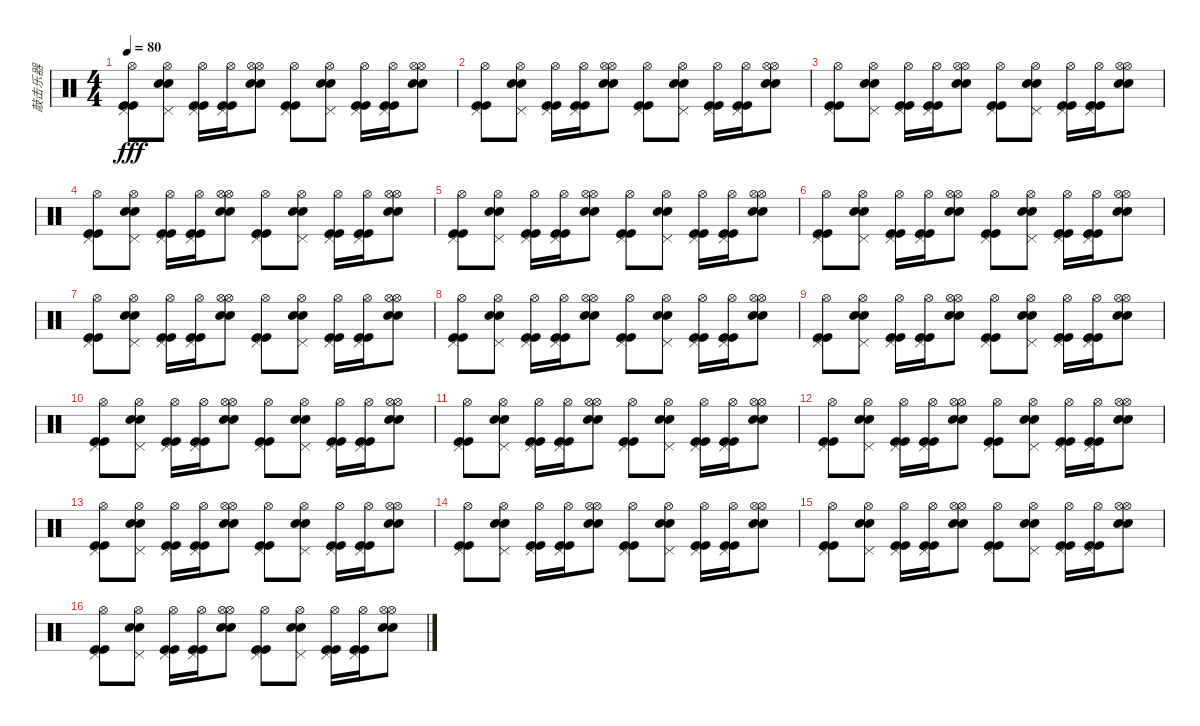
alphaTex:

\track ("敲击乐器" "敲击乐器") {instrument percussion}
\staff {score}
\articulation defaults
\ts (4 4)
\tempo 80
\clef neutral
\ks c
("Kick (hit)" "Kick (hit)" "Pedal Hi-Hat (hit)" "Hi-Hat (open)").8{dy fff} ("Electric Snare (hit)" "Electric Snare (hit)" "Pedal Hi-Hat (hit)" "Hi-Hat (open)").8 ("Kick (hit)" "Kick (hit)" "Pedal Hi-Hat (hit)" "Hi-Hat (open)").16 ("Kick (hit)" "Kick (hit)" "Pedal Hi-Hat (hit)" "Hi-Hat (open)").16 ("Electric Snare (hit)" "Electric Snare (hit)" "Hi-Hat (open)" "Hi-Hat (open)").8 ("Kick (hit)" "Kick (hit)" "Pedal Hi-Hat (hit)" "Hi-Hat (open)").8 ("Electric Snare (hit)" "Electric Snare (hit)" "Pedal Hi-Hat (hit)" "Hi-Hat (open)").8 ("Kick (hit)" "Kick (hit)" "Pedal Hi-Hat (hit)" "Hi-Hat (open)").16 ("Kick (hit)" "Kick (hit)" "Pedal Hi-Hat (hit)" "Hi-Hat (open)").16 ("Electric Snare (hit)" "Electric Snare (hit)" "Hi-Hat (open)" "Hi-Hat (open)").8 |
("Kick (hit)" "Kick (hit)" "Pedal Hi-Hat (hit)" "Hi-Hat (open)").8 ("Electric Snare (hit)" "Electric Snare (hit)" "Pedal Hi-Hat (hit)" "Hi-Hat (open)").8 ("Kick (hit)" "Kick (hit)" "Pedal Hi-Hat (hit)" "Hi-Hat (open)").16 ("Kick (hit)" "Kick (hit)" "Pedal Hi-Hat (hit)" "Hi-Hat (open)").16 ("Electric Snare (hit)" "Electric Snare (hit)" "Hi-Hat (open)" "Hi-Hat (open)").8 ("Kick (hit)" "Kick (hit)" "Pedal Hi-Hat (hit)" "Hi-Hat (open)").8 ("Electric Snare (hit)" "Electric Snare (hit)" "Pedal Hi-Hat (hit)" "Hi-Hat (open)").8 ("Kick (hit)" "Kick (hit)" "Pedal Hi-Hat (hit)" "Hi-Hat (open)").16 ("Kick (hit)" "Kick (hit)" "Pedal Hi-Hat (hit)" "Hi-Hat (open)").16 ("Electric Snare (hit)" "Electric Snare (hit)" "Hi-Hat (open)" "Hi-Hat (open)").8 |
("Kick (hit)" "Kick (hit)" "Pedal Hi-Hat (hit)" "Hi-Hat (open)").8 ("Electric Snare (hit)" "Electric Snare (hit)" "Pedal Hi-Hat (hit)" "Hi-Hat (open)").8 ("Kick (hit)" "Kick (hit)" "Pedal Hi-Hat (hit)" "Hi-Hat (open)").16 ("Kick (hit)" "Kick (hit)" "Pedal Hi-Hat (hit)" "Hi-Hat (open)").16 ("Electric Snare (hit)" "Electric Snare (hit)" "Hi-Hat (open)" "Hi-Hat (open)").8 ("Kick (hit)" "Kick (hit)" "Pedal Hi-Hat (hit)" "Hi-Hat (open)").8 ("Electric Snare (hit)" "Electric Snare (hit)" "Pedal Hi-Hat (hit)" "Hi-Hat (open)").8 ("Kick (hit)" "Kick (hit)" "Pedal Hi-Hat (hit)" "Hi-Hat (open)").16 ("Kick (hit)" "Kick (hit)" "Pedal Hi-Hat (hit)" "Hi-Hat (open)").16 ("Electric Snare (hit)" "Electric Snare (hit)" "Hi-Hat (open)" "Hi-Hat (open)").8 |
("Kick (hit)" "Kick (hit)" "Pedal Hi-Hat (hit)" "Hi-Hat (open)").8 ("Electric Snare (hit)" "Electric Snare (hit)" "Pedal Hi-Hat (hit)" "Hi-Hat (open)").8 ("Kick (hit)" "Kick (hit)" "Pedal Hi-Hat (hit)" "Hi-Hat (open)").16 ("Kick (hit)" "Kick (hit)" "Pedal Hi-Hat (hit)" "Hi-Hat (open)").16 ("Electric Snare (hit)" "Electric Snare (hit)" "Hi-Hat (open)" "Hi-Hat (open)").8 ("Kick (hit)" "Kick (hit)" "Pedal Hi-Hat (hit)" "Hi-Hat (open)").8 ("Electric Snare (hit)" "Electric Snare (hit)" "Pedal Hi-Hat (hit)" "Hi-Hat (open)").8 ("Kick (hit)" "Kick (hit)" "Pedal Hi-Hat (hit)" "Hi-Hat (open)").16 ("Kick (hit)" "Kick (hit)" "Pedal Hi-Hat (hit)" "Hi-Hat (open)").16 ("Electric Snare (hit)" "Electric Snare (hit)" "Hi-Hat (open)" "Hi-Hat (open)").8 |
("Kick (hit)" "Kick (hit)" "Pedal Hi-Hat (hit)" "Hi-Hat (open)").8 ("Electric Snare (hit)" "Electric Snare (hit)" "Pedal Hi-Hat (hit)" "Hi-Hat (open)").8 ("Kick (hit)" "Kick (hit)" "Pedal Hi-Hat (hit)" "Hi-Hat (open)").16 ("Kick (hit)" "Kick (hit)" "Pedal Hi-Hat (hit)" "Hi-Hat (open)").16 ("Electric Snare (hit)" "Electric Snare (hit)" "Hi-Hat (open)" "Hi-Hat (open)").8 ("Kick (hit)" "Kick (hit)" "Pedal Hi-Hat (hit)" "Hi-Hat (open)").8 ("Electric Snare (hit)" "Electric Snare (hit)" "Pedal Hi-Hat (hit)" "Hi-Hat (open)").8 ("Kick (hit)" "Kick (hit)" "Pedal Hi-Hat (hit)" "Hi-Hat (open)").16 ("Kick (hit)" "Kick (hit)" "Pedal Hi-Hat (hit)" "Hi-Hat (open)").16 ("Electric Snare (hit)" "Electric Snare (hit)" "Hi-Hat (open)" "Hi-Hat (open)").8 |
("Kick (hit)" "Kick (hit)" "Pedal Hi-Hat (hit)" "Hi-Hat (open)").8 ("Electric Snare (hit)" "Electric Snare (hit)" "Pedal Hi-Hat (hit)" "Hi-Hat (open)").8 ("Kick (hit)" "Kick (hit)" "Pedal Hi-Hat (hit)" "Hi-Hat (open)").16 ("Kick (hit)" "Kick (hit)" "Pedal Hi-Hat (hit)" "Hi-Hat (open)").16 ("Electric Snare (hit)" "Electric Snare (hit)" "Hi-Hat (open)" "Hi-Hat (open)").8 ("Kick (hit)" "Kick (hit)" "Pedal Hi-Hat (hit)" "Hi-Hat (open)").8 ("Electric Snare (hit)" "Electric Snare (hit)" "Pedal Hi-Hat (hit)" "Hi-Hat (open)").8 ("Kick (hit)" "Kick (hit)" "Pedal Hi-Hat (hit)" "Hi-Hat (open)").16 ("Kick (hit)" "Kick (hit)" "Pedal Hi-Hat (hit)" "Hi-Hat (open)").16 ("Electric Snare (hit)" "Electric Snare (hit)" "Hi-Hat (open)" "Hi-Hat (open)").8 |
("Kick (hit)" "Kick (hit)" "Pedal Hi-Hat (hit)" "Hi-Hat (open)").8 ("Electric Snare (hit)" "Electric Snare (hit)" "Pedal Hi-Hat (hit)" "Hi-Hat (open)").8 ("Kick (hit)" "Kick (hit)" "Pedal Hi-Hat (hit)" "Hi-Hat (open)").16 ("Kick (hit)" "Kick (hit)" "Pedal Hi-Hat (hit)" "Hi-Hat (open)").16 ("Electric Snare (hit)" "Electric Snare (hit)" "Hi-Hat (open)" "Hi-Hat (open)").8 ("Kick (hit)" "Kick (hit)" "Pedal Hi-Hat (hit)" "Hi-Hat (open)").8 ("Electric Snare (hit)" "Electric Snare (hit)" "Pedal Hi-Hat (hit)" "Hi-Hat (open)").8 ("Kick (hit)" "Kick (hit)" "Pedal Hi-Hat (hit)" "Hi-Hat (open)").16 ("Kick (hit)" "Kick (hit)" "Pedal Hi-Hat (hit)" "Hi-Hat (open)").16 ("Electric Snare (hit)" "Electric Snare (hit)" "Hi-Hat (open)" "Hi-Hat (open)").8 |
("Kick (hit)" "Kick (hit)" "Pedal Hi-Hat (hit)" "Hi-Hat (open)").8 ("Electric Snare (hit)" "Electric Snare (hit)" "Pedal Hi-Hat (hit)" "Hi-Hat (open)").8 ("Kick (hit)" "Kick (hit)" "Pedal Hi-Hat (hit)" "Hi-Hat (open)").16 ("Kick (hit)" "Kick (hit)" "Pedal Hi-Hat (hit)" "Hi-Hat (open)").16 ("Electric Snare (hit)" "Electric Snare (hit)" "Hi-Hat (open)" "Hi-Hat (open)").8 ("Kick (hit)" "Kick (hit)" "Pedal Hi-Hat (hit)" "Hi-Hat (open)").8 ("Electric Snare (hit)" "Electric Snare (hit)" "Pedal Hi-Hat (hit)" "Hi-Hat (open)").8 ("Kick (hit)" "Kick (hit)" "Pedal Hi-Hat (hit)" "Hi-Hat (open)").16 ("Kick (hit)" "Kick (hit)" "Pedal Hi-Hat (hit)" "Hi-Hat (open)").16 ("Electric Snare (hit)" "Electric Snare (hit)" "Hi-Hat (open)" "Hi-Hat (open)").8 |
("Kick (hit)" "Kick (hit)" "Pedal Hi-Hat (hit)" "Hi-Hat (open)").8 ("Electric Snare (hit)" "Electric Snare (hit)" "Pedal Hi-Hat (hit)" "Hi-Hat (open)").8 ("Kick (hit)" "Kick (hit)" "Pedal Hi-Hat (hit)" "Hi-Hat (open)").16 ("Kick (hit)" "Kick (hit)" "Pedal Hi-Hat (hit)" "Hi-Hat (open)").16 ("Electric Snare (hit)" "Electric Snare (hit)" "Hi-Hat (open)" "Hi-Hat (open)").8 ("Kick (hit)" "Kick (hit)" "Pedal Hi-Hat (hit)" "Hi-Hat (open)").8 ("Electric Snare (hit)" "Electric Snare (hit)" "Pedal Hi-Hat (hit)" "Hi-Hat (open)").8 ("Kick (hit)" "Kick (hit)" "Pedal Hi-Hat (hit)" "Hi-Hat (open)").16 ("Kick (hit)" "Kick (hit)" "Pedal Hi-Hat (hit)" "Hi-Hat (open)").16 ("Electric Snare (hit)" "Electric Snare (hit)" "Hi-Hat (open)" "Hi-Hat (open)").8 |
("Kick (hit)" "Kick (hit)" "Pedal Hi-Hat (hit)" "Hi-Hat (open)").8 ("Electric Snare (hit)" "Electric Snare (hit)" "Pedal Hi-Hat (hit)" "Hi-Hat (open)").8 ("Kick (hit)" "Kick (hit)" "Pedal Hi-Hat (hit)" "Hi-Hat (open)").16 ("Kick (hit)" "Kick (hit)" "Pedal Hi-Hat (hit)" "Hi-Hat (open)").16 ("Electric Snare (hit)" "Electric Snare (hit)" "Hi-Hat (open)" "Hi-Hat (open)").8 ("Kick (hit)" "Kick (hit)" "Pedal Hi-Hat (hit)" "Hi-Hat (open)").8 ("Electric Snare (hit)" "Electric Snare (hit)" "Pedal Hi-Hat (hit)" "Hi-Hat (open)").8 ("Kick (hit)" "Kick (hit)" "Pedal Hi-Hat (hit)" "Hi-Hat (open)").16 ("Kick (hit)" "Kick (hit)" "Pedal Hi-Hat (hit)" "Hi-Hat (open)").16 ("Electric Snare (hit)" "Electric Snare (hit)" "Hi-Hat (open)" "Hi-Hat (open)").8 |
("Kick (hit)" "Kick (hit)" "Pedal Hi-Hat (hit)" "Hi-Hat (open)").8 ("Electric Snare (hit)" "Electric Snare (hit)" "Pedal Hi-Hat (hit)" "Hi-Hat (open)").8 ("Kick (hit)" "Kick (hit)" "Pedal Hi-Hat (hit)" "Hi-Hat (open)").16 ("Kick (hit)" "Kick (hit)" "Pedal Hi-Hat (hit)" "Hi-Hat (open)").16 ("Electric Snare (hit)" "Electric Snare (hit)" "Hi-Hat (open)" "Hi-Hat (open)").8 ("Kick (hit)" "Kick (hit)" "Pedal Hi-Hat (hit)" "Hi-Hat (open)").8 ("Electric Snare (hit)" "Electric Snare (hit)" "Pedal Hi-Hat (hit)" "Hi-Hat (open)").8 ("Kick (hit)" "Kick (hit)" "Pedal Hi-Hat (hit)" "Hi-Hat (open)").16 ("Kick (hit)" "Kick (hit)" "Pedal Hi-Hat (hit)" "Hi-Hat (open)").16 ("Electric Snare (hit)" "Electric Snare (hit)" "Hi-Hat (open)" "Hi-Hat (open)").8 |
("Kick (hit)" "Kick (hit)" "Pedal Hi-Hat (hit)" "Hi-Hat (open)").8 ("Electric Snare (hit)" "Electric Snare (hit)" "Pedal Hi-Hat (hit)" "Hi-Hat (open)").8 ("Kick (hit)" "Kick (hit)" "Pedal Hi-Hat (hit)" "Hi-Hat (open)").16 ("Kick (hit)" "Kick (hit)" "Pedal Hi-Hat (hit)" "Hi-Hat (open)").16 ("Electric Snare (hit)" "Electric Snare (hit)" "Hi-Hat (open)" "Hi-Hat (open)").8 ("Kick (hit)" "Kick (hit)" "Pedal Hi-Hat (hit)" "Hi-Hat (open)").8 ("Electric Snare (hit)" "Electric Snare (hit)" "Pedal Hi-Hat (hit)" "Hi-Hat (open)").8 ("Kick (hit)" "Kick (hit)" "Pedal Hi-Hat (hit)" "Hi-Hat (open)").16 ("Kick (hit)" "Kick (hit)" "Pedal Hi-Hat (hit)" "Hi-Hat (open)").16 ("Electric Snare (hit)" "Electric Snare (hit)" "Hi-Hat (open)" "Hi-Hat (open)").8 |
("Kick (hit)" "Kick (hit)" "Pedal Hi-Hat (hit)" "Hi-Hat (open)").8 ("Electric Snare (hit)" "Electric Snare (hit)" "Pedal Hi-Hat (hit)" "Hi-Hat (open)").8 ("Kick (hit)" "Kick (hit)" "Pedal Hi-Hat (hit)" "Hi-Hat (open)").16 ("Kick (hit)" "Kick (hit)" "Pedal Hi-Hat (hit)" "Hi-Hat (open)").16 ("Electric Snare (hit)" "Electric Snare (hit)" "Hi-Hat (open)" "Hi-Hat (open)").8 ("Kick (hit)" "Kick (hit)" "Pedal Hi-Hat (hit)" "Hi-Hat (open)").8 ("Electric Snare (hit)" "Electric Snare (hit)" "Pedal Hi-Hat (hit)" "Hi-Hat (open)").8 ("Kick (hit)" "Kick (hit)" "Pedal Hi-Hat (hit)" "Hi-Hat (open)").16 ("Kick (hit)" "Kick (hit)" "Pedal Hi-Hat (hit)" "Hi-Hat (open)").16 ("Electric Snare (hit)" "Electric Snare (hit)" "Hi-Hat (open)" "Hi-Hat (open)").8 |
("Kick (hit)" "Kick (hit)" "Pedal Hi-Hat (hit)" "Hi-Hat (open)").8 ("Electric Snare (hit)" "Electric Snare (hit)" "Pedal Hi-Hat (hit)" "Hi-Hat (open)").8 ("Kick (hit)" "Kick (hit)" "Pedal Hi-Hat (hit)" "Hi-Hat (open)").16 ("Kick (hit)" "Kick (hit)" "Pedal Hi-Hat (hit)" "Hi-Hat (open)").16 ("Electric Snare (hit)" "Electric Snare (hit)" "Hi-Hat (open)" "Hi-Hat (open)").8 ("Kick (hit)" "Kick (hit)" "Pedal Hi-Hat (hit)" "Hi-Hat (open)").8 ("Electric Snare (hit)" "Electric Snare (hit)" "Pedal Hi-Hat (hit)" "Hi-Hat (open)").8 ("Kick (hit)" "Kick (hit)" "Pedal Hi-Hat (hit)" "Hi-Hat (open)").16 ("Kick (hit)" "Kick (hit)" "Pedal Hi-Hat (hit)" "Hi-Hat (open)").16 ("Electric Snare (hit)" "Electric Snare (hit)" "Hi-Hat (open)" "Hi-Hat (open)").8 |
("Kick (hit)" "Kick (hit)" "Pedal Hi-Hat (hit)" "Hi-Hat (open)").8 ("Electric Snare (hit)" "Electric Snare (hit)" "Pedal Hi-Hat (hit)" "Hi-Hat (open)").8 ("Kick (hit)" "Kick (hit)" "Pedal Hi-Hat (hit)" "Hi-Hat (open)").16 ("Kick (hit)" "Kick (hit)" "Pedal Hi-Hat (hit)" "Hi-Hat (open)").16 ("Electric Snare (hit)" "Electric Snare (hit)" "Hi-Hat (open)" "Hi-Hat (open)").8 ("Kick (hit)" "Kick (hit)" "Pedal Hi-Hat (hit)" "Hi-Hat (open)").8 ("Electric Snare (hit)" "Electric Snare (hit)" "Pedal Hi-Hat (hit)" "Hi-Hat (open)").8 ("Kick (hit)" "Kick (hit)" "Pedal Hi-Hat (hit)" "Hi-Hat (open)").16 ("Kick (hit)" "Kick (hit)" "Pedal Hi-Hat (hit)" "Hi-Hat (open)").16 ("Electric Snare (hit)" "Electric Snare (hit)" "Hi-Hat (open)" "Hi-Hat (open)").8 |
("Kick (hit)" "Kick (hit)" "Pedal Hi-Hat (hit)" "Hi-Hat (open)").8 ("Electric Snare (hit)" "Electric Snare (hit)" "Pedal Hi-Hat (hit)" "Hi-Hat (open)").8 ("Kick (hit)" "Kick (hit)" "Pedal Hi-Hat (hit)" "Hi-Hat (open)").16 ("Kick (hit)" "Kick (hit)" "Pedal Hi-Hat (hit)" "Hi-Hat (open)").16 ("Electric Snare (hit)" "Electric Snare (hit)" "Hi-Hat (open)" "Hi-Hat (open)").8 ("Kick (hit)" "Kick (hit)" "Pedal Hi-Hat (hit)" "Hi-Hat (open)").8 ("Electric Snare (hit)" "Electric Snare (hit)" "Pedal Hi-Hat (hit)" "Hi-Hat (open)").8 ("Kick (hit)" "Kick (hit)" "Pedal Hi-Hat (hit)" "Hi-Hat (open)").16 ("Kick (hit)" "Kick (hit)" "Pedal Hi-Hat (hit)" "Hi-Hat (open)").16 ("Electric Snare (hit)" "Electric Snare (hit)" "Hi-Hat (open)" "Hi-Hat (open)").8
